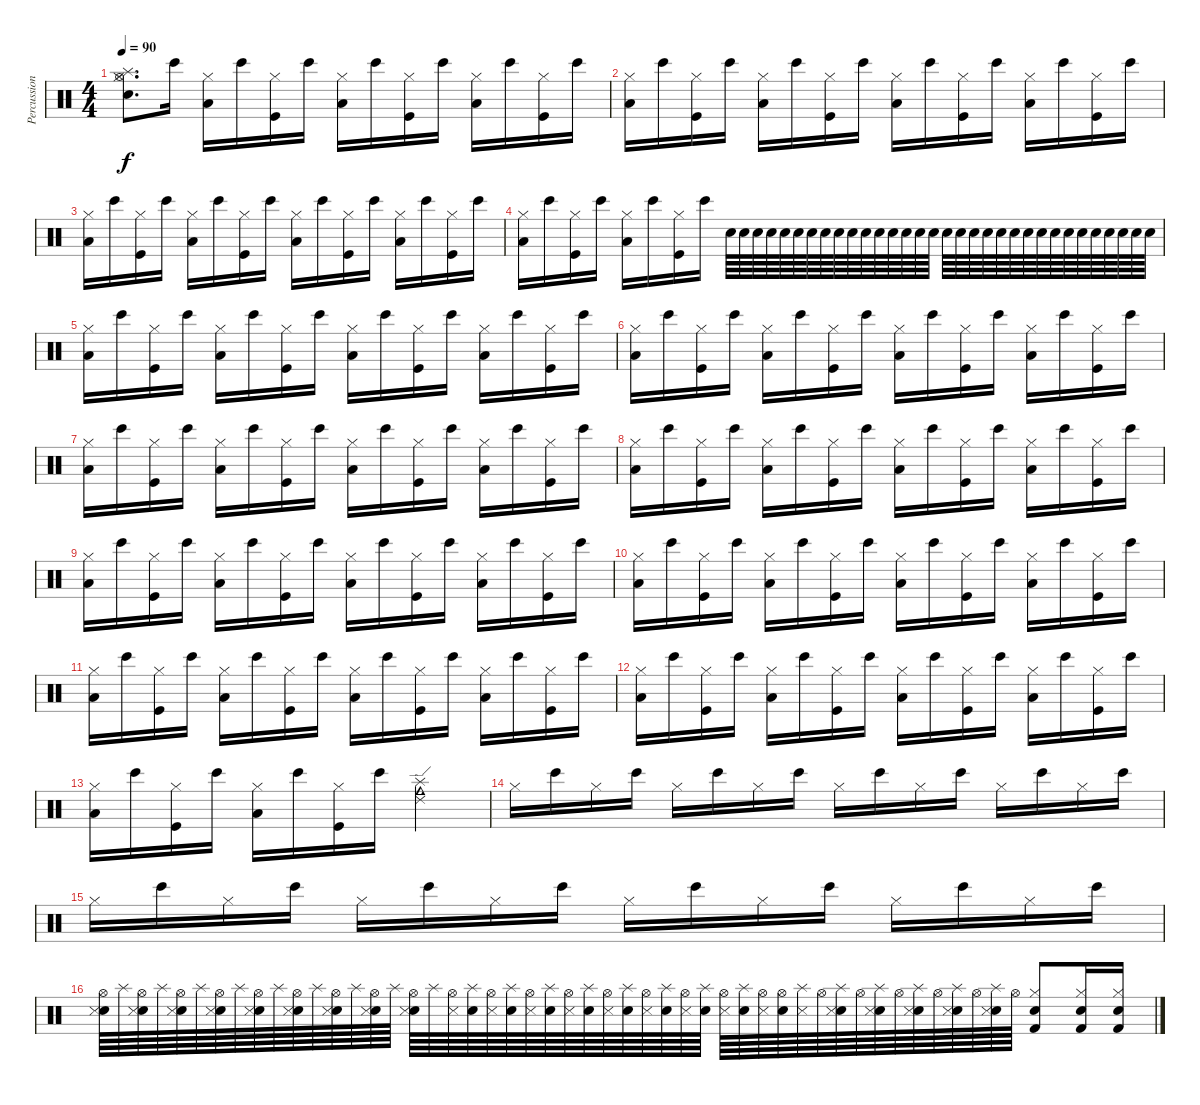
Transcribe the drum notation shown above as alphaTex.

\track ("Percussion" "Percussion") {instrument percussion}
\staff {score}
\articulation defaults
\ts (4 4)
\tempo 90
\clef neutral
\ks c
("Snare (hit) 2" "Hi-Hat (closed)" "Hi-Hat (open)" "Splash (hit)").8{d dy f} "Bongo High (hit)".16 ("Hi-Hat (closed)" "Low Floor Tom (hit)").16 "Bongo High (hit)".16 ("Hi-Hat (closed)" "Kick (hit)").16 "Bongo High (hit)".16 ("Hi-Hat (closed)" "Low Floor Tom (hit)").16 "Bongo High (hit)".16 ("Hi-Hat (closed)" "Kick (hit)").16 "Bongo High (hit)".16 ("Hi-Hat (closed)" "Low Floor Tom (hit)").16 "Bongo High (hit)".16 ("Hi-Hat (closed)" "Kick (hit)").16 "Bongo High (hit)".16 |
("Hi-Hat (closed)" "Low Floor Tom (hit)").16 "Bongo High (hit)".16 ("Hi-Hat (closed)" "Kick (hit)").16 "Bongo High (hit)".16 ("Hi-Hat (closed)" "Low Floor Tom (hit)").16 "Bongo High (hit)".16 ("Hi-Hat (closed)" "Kick (hit)").16 "Bongo High (hit)".16 ("Hi-Hat (closed)" "Low Floor Tom (hit)").16 "Bongo High (hit)".16 ("Hi-Hat (closed)" "Kick (hit)").16 "Bongo High (hit)".16 ("Hi-Hat (closed)" "Low Floor Tom (hit)").16 "Bongo High (hit)".16 ("Hi-Hat (closed)" "Kick (hit)").16 "Bongo High (hit)".16 |
("Hi-Hat (closed)" "Low Floor Tom (hit)").16 "Bongo High (hit)".16 ("Hi-Hat (closed)" "Kick (hit)").16 "Bongo High (hit)".16 ("Hi-Hat (closed)" "Low Floor Tom (hit)").16 "Bongo High (hit)".16 ("Hi-Hat (closed)" "Kick (hit)").16 "Bongo High (hit)".16 ("Hi-Hat (closed)" "Low Floor Tom (hit)").16 "Bongo High (hit)".16 ("Hi-Hat (closed)" "Kick (hit)").16 "Bongo High (hit)".16 ("Hi-Hat (closed)" "Low Floor Tom (hit)").16 "Bongo High (hit)".16 ("Hi-Hat (closed)" "Kick (hit)").16 "Bongo High (hit)".16 |
("Hi-Hat (closed)" "Low Floor Tom (hit)").16 "Bongo High (hit)".16 ("Hi-Hat (closed)" "Kick (hit)").16 "Bongo High (hit)".16 ("Hi-Hat (closed)" "Low Floor Tom (hit)").16 "Bongo High (hit)".16 ("Hi-Hat (closed)" "Kick (hit)").16 "Bongo High (hit)".16 "Snare (hit) 2".64 "Electric Snare (hit)".64 "Snare (hit) 2".64 "Electric Snare (hit)".64 "Snare (hit) 2".64 "Electric Snare (hit)".64 "Snare (hit) 2".64 "Electric Snare (hit)".64 "Snare (hit) 2".64 "Electric Snare (hit)".64 "Snare (hit) 2".64 "Electric Snare (hit)".64 "Snare (hit) 2".64 "Electric Snare (hit)".64 "Snare (hit) 2".64 "Electric Snare (hit)".64 "Snare (hit) 2".64 "Electric Snare (hit)".64 "Snare (hit) 2".64 "Electric Snare (hit)".64 "Snare (hit) 2".64 "Electric Snare (hit)".64 "Snare (hit) 2".64 "Electric Snare (hit)".64 "Snare (hit) 2".64 "Electric Snare (hit)".64 "Snare (hit) 2".64 "Electric Snare (hit)".64 "Snare (hit) 2".64 "Electric Snare (hit)".64 "Snare (hit) 2".64 "Electric Snare (hit)".64 |
("Hi-Hat (closed)" "Low Floor Tom (hit)").16 "Bongo High (hit)".16 ("Hi-Hat (closed)" "Kick (hit)").16 "Bongo High (hit)".16 ("Hi-Hat (closed)" "Low Floor Tom (hit)").16 "Bongo High (hit)".16 ("Hi-Hat (closed)" "Kick (hit)").16 "Bongo High (hit)".16 ("Hi-Hat (closed)" "Low Floor Tom (hit)").16 "Bongo High (hit)".16 ("Hi-Hat (closed)" "Kick (hit)").16 "Bongo High (hit)".16 ("Hi-Hat (closed)" "Low Floor Tom (hit)").16 "Bongo High (hit)".16 ("Hi-Hat (closed)" "Kick (hit)").16 "Bongo High (hit)".16 |
("Hi-Hat (closed)" "Low Floor Tom (hit)").16 "Bongo High (hit)".16 ("Hi-Hat (closed)" "Kick (hit)").16 "Bongo High (hit)".16 ("Hi-Hat (closed)" "Low Floor Tom (hit)").16 "Bongo High (hit)".16 ("Hi-Hat (closed)" "Kick (hit)").16 "Bongo High (hit)".16 ("Hi-Hat (closed)" "Low Floor Tom (hit)").16 "Bongo High (hit)".16 ("Hi-Hat (closed)" "Kick (hit)").16 "Bongo High (hit)".16 ("Hi-Hat (closed)" "Low Floor Tom (hit)").16 "Bongo High (hit)".16 ("Hi-Hat (closed)" "Kick (hit)").16 "Bongo High (hit)".16 |
("Hi-Hat (closed)" "Low Floor Tom (hit)").16 "Bongo High (hit)".16 ("Hi-Hat (closed)" "Kick (hit)").16 "Bongo High (hit)".16 ("Hi-Hat (closed)" "Low Floor Tom (hit)").16 "Bongo High (hit)".16 ("Hi-Hat (closed)" "Kick (hit)").16 "Bongo High (hit)".16 ("Hi-Hat (closed)" "Low Floor Tom (hit)").16 "Bongo High (hit)".16 ("Hi-Hat (closed)" "Kick (hit)").16 "Bongo High (hit)".16 ("Hi-Hat (closed)" "Low Floor Tom (hit)").16 "Bongo High (hit)".16 ("Hi-Hat (closed)" "Kick (hit)").16 "Bongo High (hit)".16 |
("Hi-Hat (closed)" "Low Floor Tom (hit)").16 "Bongo High (hit)".16 ("Hi-Hat (closed)" "Kick (hit)").16 "Bongo High (hit)".16 ("Hi-Hat (closed)" "Low Floor Tom (hit)").16 "Bongo High (hit)".16 ("Hi-Hat (closed)" "Kick (hit)").16 "Bongo High (hit)".16 ("Hi-Hat (closed)" "Low Floor Tom (hit)").16 "Bongo High (hit)".16 ("Hi-Hat (closed)" "Kick (hit)").16 "Bongo High (hit)".16 ("Hi-Hat (closed)" "Low Floor Tom (hit)").16 "Bongo High (hit)".16 ("Hi-Hat (closed)" "Kick (hit)").16 "Bongo High (hit)".16 |
("Hi-Hat (closed)" "Low Floor Tom (hit)").16 "Bongo High (hit)".16 ("Hi-Hat (closed)" "Kick (hit)").16 "Bongo High (hit)".16 ("Hi-Hat (closed)" "Low Floor Tom (hit)").16 "Bongo High (hit)".16 ("Hi-Hat (closed)" "Kick (hit)").16 "Bongo High (hit)".16 ("Hi-Hat (closed)" "Low Floor Tom (hit)").16 "Bongo High (hit)".16 ("Hi-Hat (closed)" "Kick (hit)").16 "Bongo High (hit)".16 ("Hi-Hat (closed)" "Low Floor Tom (hit)").16 "Bongo High (hit)".16 ("Hi-Hat (closed)" "Kick (hit)").16 "Bongo High (hit)".16 |
("Hi-Hat (closed)" "Low Floor Tom (hit)").16 "Bongo High (hit)".16 ("Hi-Hat (closed)" "Kick (hit)").16 "Bongo High (hit)".16 ("Hi-Hat (closed)" "Low Floor Tom (hit)").16 "Bongo High (hit)".16 ("Hi-Hat (closed)" "Kick (hit)").16 "Bongo High (hit)".16 ("Hi-Hat (closed)" "Low Floor Tom (hit)").16 "Bongo High (hit)".16 ("Hi-Hat (closed)" "Kick (hit)").16 "Bongo High (hit)".16 ("Hi-Hat (closed)" "Low Floor Tom (hit)").16 "Bongo High (hit)".16 ("Hi-Hat (closed)" "Kick (hit)").16 "Bongo High (hit)".16 |
("Hi-Hat (closed)" "Low Floor Tom (hit)").16 "Bongo High (hit)".16 ("Hi-Hat (closed)" "Kick (hit)").16 "Bongo High (hit)".16 ("Hi-Hat (closed)" "Low Floor Tom (hit)").16 "Bongo High (hit)".16 ("Hi-Hat (closed)" "Kick (hit)").16 "Bongo High (hit)".16 ("Hi-Hat (closed)" "Low Floor Tom (hit)").16 "Bongo High (hit)".16 ("Hi-Hat (closed)" "Kick (hit)").16 "Bongo High (hit)".16 ("Hi-Hat (closed)" "Low Floor Tom (hit)").16 "Bongo High (hit)".16 ("Hi-Hat (closed)" "Kick (hit)").16 "Bongo High (hit)".16 |
("Hi-Hat (closed)" "Low Floor Tom (hit)").16 "Bongo High (hit)".16 ("Hi-Hat (closed)" "Kick (hit)").16 "Bongo High (hit)".16 ("Hi-Hat (closed)" "Low Floor Tom (hit)").16 "Bongo High (hit)".16 ("Hi-Hat (closed)" "Kick (hit)").16 "Bongo High (hit)".16 ("Hi-Hat (closed)" "Low Floor Tom (hit)").16 "Bongo High (hit)".16 ("Hi-Hat (closed)" "Kick (hit)").16 "Bongo High (hit)".16 ("Hi-Hat (closed)" "Low Floor Tom (hit)").16 "Bongo High (hit)".16 ("Hi-Hat (closed)" "Kick (hit)").16 "Bongo High (hit)".16 |
("Hi-Hat (closed)" "Low Floor Tom (hit)").16 "Bongo High (hit)".16 ("Hi-Hat (closed)" "Kick (hit)").16 "Bongo High (hit)".16 ("Hi-Hat (closed)" "Low Floor Tom (hit)").16 "Bongo High (hit)".16 ("Hi-Hat (closed)" "Kick (hit)").16 "Bongo High (hit)".16 ("Splash (hit)" "Cowbell medium (hit)" "Ride (edge) 2").2 |
"Hi-Hat (closed)".16 "Bongo High (hit)".16 "Hi-Hat (closed)".16 "Bongo High (hit)".16 "Hi-Hat (closed)".16 "Bongo High (hit)".16 "Hi-Hat (closed)".16 "Bongo High (hit)".16 "Hi-Hat (closed)".16 "Bongo High (hit)".16 "Hi-Hat (closed)".16 "Bongo High (hit)".16 "Hi-Hat (closed)".16 "Bongo High (hit)".16 "Hi-Hat (closed)".16 "Bongo High (hit)".16 |
"Hi-Hat (closed)".16 "Bongo High (hit)".16 "Hi-Hat (closed)".16 "Bongo High (hit)".16 "Hi-Hat (closed)".16 "Bongo High (hit)".16 "Hi-Hat (closed)".16 "Bongo High (hit)".16 "Hi-Hat (closed)".16 "Bongo High (hit)".16 "Hi-Hat (closed)".16 "Bongo High (hit)".16 "Hi-Hat (closed)".16 "Bongo High (hit)".16 "Hi-Hat (closed)".16 "Bongo High (hit)".16 |
("Hi-Hat (open)" "Electric Snare (hit)" "Snare (side stick) 3").64 "Splash (hit)".64 ("Hi-Hat (open)" "Electric Snare (hit)" "Snare (side stick) 3").64 "Splash (hit)".64 ("Hi-Hat (open)" "Electric Snare (hit)" "Snare (side stick) 3").64 "Splash (hit)".64 ("Hi-Hat (open)" "Electric Snare (hit)" "Snare (side stick) 3").64 "Splash (hit)".64 ("Hi-Hat (open)" "Electric Snare (hit)" "Snare (side stick) 3").64 "Splash (hit)".64 ("Hi-Hat (open)" "Electric Snare (hit)" "Snare (side stick) 3").64 "Splash (hit)".64 ("Hi-Hat (open)" "Electric Snare (hit)" "Snare (side stick) 3").64 "Splash (hit)".64 ("Hi-Hat (open)" "Electric Snare (hit)" "Snare (side stick) 3").64 "Splash (hit)".64 ("Hi-Hat (open)" "Electric Snare (hit)" "Snare (side stick) 3").64 "Splash (hit)".64 ("Hi-Hat (open)" "Snare (side stick) 3").64 ("Splash (hit)" "Electric Snare (hit)").64 ("Hi-Hat (open)" "Snare (side stick) 3").64 ("Splash (hit)" "Electric Snare (hit)").64 ("Hi-Hat (open)" "Snare (side stick) 3").64 ("Splash (hit)" "Electric Snare (hit)").64 ("Hi-Hat (open)" "Snare (side stick) 3").64 ("Splash (hit)" "Electric Snare (hit)").64 ("Hi-Hat (open)" "Snare (side stick) 3").64 ("Splash (hit)" "Electric Snare (hit)").64 ("Hi-Hat (open)" "Snare (side stick) 3").64 ("Splash (hit)" "Electric Snare (hit)").64 ("Hi-Hat (open)" "Snare (side stick) 3").64 ("Splash (hit)" "Electric Snare (hit)").64 ("Hi-Hat (open)" "Snare (side stick) 3").64 ("Splash (hit)" "Electric Snare (hit)").64 ("Hi-Hat (open)" "Snare (side stick) 3").64 ("Hi-Hat (open)" "Electric Snare (hit)").64 ("Splash (hit)" "Snare (side stick) 3").64 "Hi-Hat (open)".64 ("Splash (hit)" "Electric Snare (hit)" "Snare (side stick) 3").64 "Hi-Hat (open)".64 ("Splash (hit)" "Electric Snare (hit)" "Snare (side stick) 3").64 "Hi-Hat (open)".64 ("Splash (hit)" "Electric Snare (hit)" "Snare (side stick) 3").64 "Hi-Hat (open)".64 ("Splash (hit)" "Electric Snare (hit)" "Snare (side stick) 3").64 "Hi-Hat (open)".64 ("Splash (hit)" "Electric Snare (hit)" "Snare (side stick) 3").64 "Hi-Hat (open)".64 ("Kick (hit) 2" "Snare (hit) 2" "Hi-Hat (closed)").8 ("Kick (hit) 2" "Snare (hit) 2" "Hi-Hat (closed)").16 ("Kick (hit) 2" "Snare (hit) 2" "Hi-Hat (closed)").16
